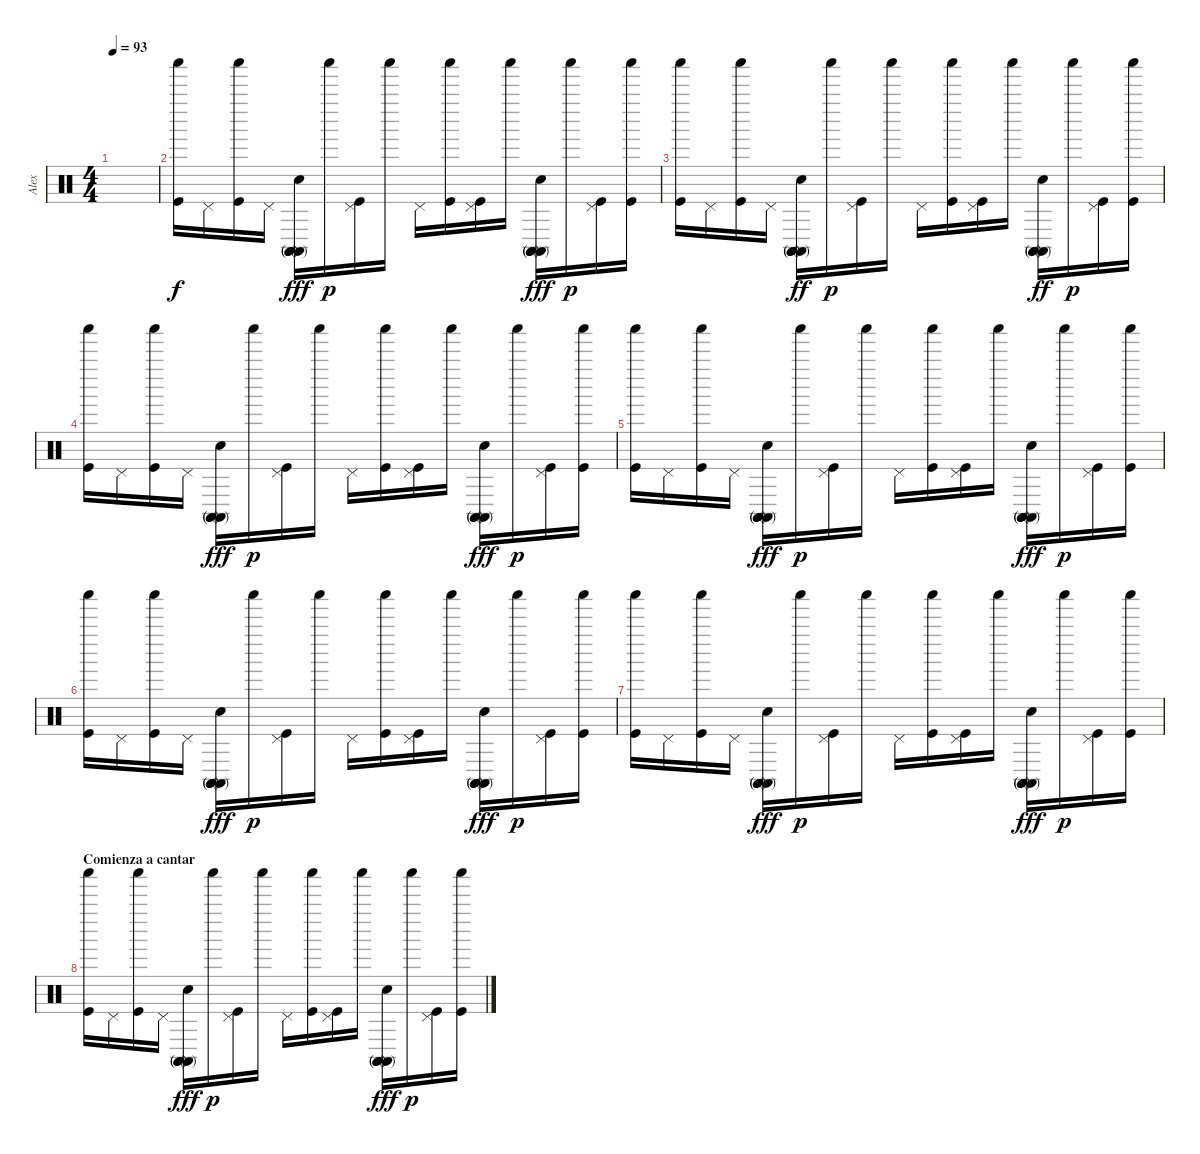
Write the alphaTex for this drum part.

\track ("Alex" "Alex") {instrument percussion}
\staff {score}
\articulation defaults
\ts (4 4)
\tempo 93
\clef neutral
\ks c
|
("Kick (hit)" "Shaker (hit)").16{volume 13} "Pedal Hi-Hat (hit)".16 ("Kick (hit)" "Shaker (hit)").16 "Pedal Hi-Hat (hit)".16 ("Electric Snare (hit)" "Conga high (mute)" "Conga high (mute)" "Conga high (mute)").16{dy fff} "Shaker (hit)".16{dy p} ("Kick (hit)" "Pedal Hi-Hat (hit)").16 "Shaker (hit)".16 "Pedal Hi-Hat (hit)".16 ("Kick (hit)" "Shaker (hit)").16 ("Kick (hit)" "Pedal Hi-Hat (hit)").16 "Shaker (hit)".16 ("Electric Snare (hit)" "Conga high (mute)" "Conga high (mute)" "Conga high (mute)").16{dy fff} "Shaker (hit)".16{dy p} ("Kick (hit)" "Pedal Hi-Hat (hit)").16 ("Kick (hit)" "Shaker (hit)").16 |
("Kick (hit)" "Shaker (hit)").16{volume 13} "Pedal Hi-Hat (hit)".16 ("Kick (hit)" "Shaker (hit)").16 "Pedal Hi-Hat (hit)".16 ("Electric Snare (hit)" "Conga high (mute)" "Conga high (mute)" "Conga high (mute)").16{dy ff} "Shaker (hit)".16{dy p} ("Kick (hit)" "Pedal Hi-Hat (hit)").16 "Shaker (hit)".16 "Pedal Hi-Hat (hit)".16 ("Kick (hit)" "Shaker (hit)").16 ("Kick (hit)" "Pedal Hi-Hat (hit)").16 "Shaker (hit)".16 ("Electric Snare (hit)" "Conga high (mute)" "Conga high (mute)" "Conga high (mute)").16{dy ff} "Shaker (hit)".16{dy p} ("Kick (hit)" "Pedal Hi-Hat (hit)").16 ("Kick (hit)" "Shaker (hit)").16 |
("Kick (hit)" "Shaker (hit)").16{volume 13} "Pedal Hi-Hat (hit)".16 ("Kick (hit)" "Shaker (hit)").16 "Pedal Hi-Hat (hit)".16 ("Electric Snare (hit)" "Conga high (mute)" "Conga high (mute)" "Conga high (mute)").16{dy fff} "Shaker (hit)".16{dy p} ("Kick (hit)" "Pedal Hi-Hat (hit)").16 "Shaker (hit)".16 "Pedal Hi-Hat (hit)".16 ("Kick (hit)" "Shaker (hit)").16 ("Kick (hit)" "Pedal Hi-Hat (hit)").16 "Shaker (hit)".16 ("Electric Snare (hit)" "Conga high (mute)" "Conga high (mute)" "Conga high (mute)").16{dy fff} "Shaker (hit)".16{dy p} ("Kick (hit)" "Pedal Hi-Hat (hit)").16 ("Kick (hit)" "Shaker (hit)").16 |
("Kick (hit)" "Shaker (hit)").16{volume 13} "Pedal Hi-Hat (hit)".16 ("Kick (hit)" "Shaker (hit)").16 "Pedal Hi-Hat (hit)".16 ("Electric Snare (hit)" "Conga high (mute)" "Conga high (mute)" "Conga high (mute)").16{dy fff} "Shaker (hit)".16{dy p} ("Kick (hit)" "Pedal Hi-Hat (hit)").16 "Shaker (hit)".16 "Pedal Hi-Hat (hit)".16 ("Kick (hit)" "Shaker (hit)").16 ("Kick (hit)" "Pedal Hi-Hat (hit)").16 "Shaker (hit)".16 ("Electric Snare (hit)" "Conga high (mute)" "Conga high (mute)" "Conga high (mute)").16{dy fff} "Shaker (hit)".16{dy p} ("Kick (hit)" "Pedal Hi-Hat (hit)").16 ("Kick (hit)" "Shaker (hit)").16 |
("Kick (hit)" "Shaker (hit)").16{volume 13} "Pedal Hi-Hat (hit)".16 ("Kick (hit)" "Shaker (hit)").16 "Pedal Hi-Hat (hit)".16 ("Electric Snare (hit)" "Conga high (mute)" "Conga high (mute)" "Conga high (mute)").16{dy fff} "Shaker (hit)".16{dy p} ("Kick (hit)" "Pedal Hi-Hat (hit)").16 "Shaker (hit)".16 "Pedal Hi-Hat (hit)".16 ("Kick (hit)" "Shaker (hit)").16 ("Kick (hit)" "Pedal Hi-Hat (hit)").16 "Shaker (hit)".16 ("Electric Snare (hit)" "Conga high (mute)" "Conga high (mute)" "Conga high (mute)").16{dy fff} "Shaker (hit)".16{dy p} ("Kick (hit)" "Pedal Hi-Hat (hit)").16 ("Kick (hit)" "Shaker (hit)").16 |
("Kick (hit)" "Shaker (hit)").16{volume 13} "Pedal Hi-Hat (hit)".16 ("Kick (hit)" "Shaker (hit)").16 "Pedal Hi-Hat (hit)".16 ("Electric Snare (hit)" "Conga high (mute)" "Conga high (mute)" "Conga high (mute)").16{dy fff} "Shaker (hit)".16{dy p} ("Kick (hit)" "Pedal Hi-Hat (hit)").16 "Shaker (hit)".16 "Pedal Hi-Hat (hit)".16 ("Kick (hit)" "Shaker (hit)").16 ("Kick (hit)" "Pedal Hi-Hat (hit)").16 "Shaker (hit)".16 ("Electric Snare (hit)" "Conga high (mute)" "Conga high (mute)" "Conga high (mute)").16{dy fff} "Shaker (hit)".16{dy p} ("Kick (hit)" "Pedal Hi-Hat (hit)").16 ("Kick (hit)" "Shaker (hit)").16 |
\section ("" "Comienza a cantar")
("Kick (hit)" "Shaker (hit)").16{volume 13} "Pedal Hi-Hat (hit)".16 ("Kick (hit)" "Shaker (hit)").16 "Pedal Hi-Hat (hit)".16 ("Electric Snare (hit)" "Conga high (mute)" "Conga high (mute)" "Conga high (mute)").16{dy fff} "Shaker (hit)".16{dy p} ("Kick (hit)" "Pedal Hi-Hat (hit)").16 "Shaker (hit)".16 "Pedal Hi-Hat (hit)".16 ("Kick (hit)" "Shaker (hit)").16 ("Kick (hit)" "Pedal Hi-Hat (hit)").16 "Shaker (hit)".16 ("Electric Snare (hit)" "Conga high (mute)" "Conga high (mute)" "Conga high (mute)").16{dy fff} "Shaker (hit)".16{dy p} ("Kick (hit)" "Pedal Hi-Hat (hit)").16 ("Kick (hit)" "Shaker (hit)").16
